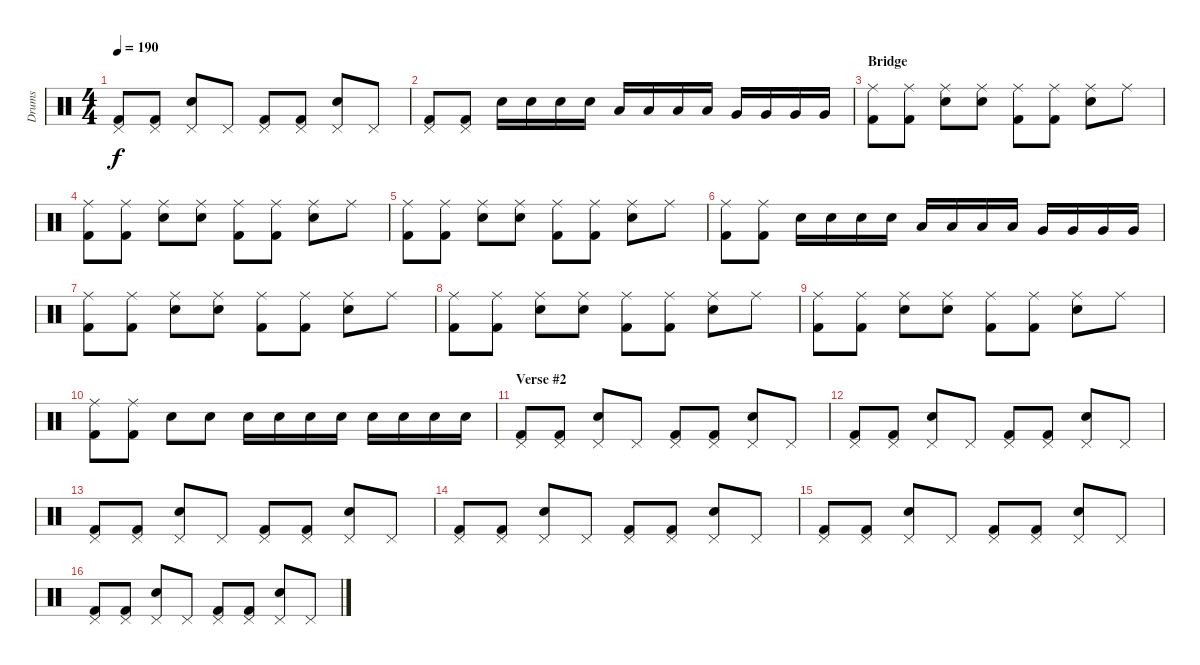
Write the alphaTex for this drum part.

\track ("Drums" "Drums") {instrument percussion}
\staff {score}
\articulation defaults
\ts (4 4)
\tempo 190
\clef neutral
\ks c
("Kick (hit) 2" "Pedal Hi-Hat (hit)").8{dy f} ("Kick (hit) 2" "Pedal Hi-Hat (hit)").8 ("Electric Snare (hit)" "Pedal Hi-Hat (hit)").8 "Pedal Hi-Hat (hit)".8 ("Kick (hit) 2" "Pedal Hi-Hat (hit)").8 ("Kick (hit) 2" "Pedal Hi-Hat (hit)").8 ("Electric Snare (hit)" "Pedal Hi-Hat (hit)").8 "Pedal Hi-Hat (hit)".8 |
("Kick (hit) 2" "Pedal Hi-Hat (hit)").8 ("Kick (hit) 2" "Pedal Hi-Hat (hit)").8 "Electric Snare (hit)".16 "Electric Snare (hit)".16 "Electric Snare (hit)".16 "Electric Snare (hit)".16 "Low Floor Tom (hit)".16 "Low Floor Tom (hit)".16 "Low Floor Tom (hit)".16 "Low Floor Tom (hit)".16 "Very Low Tom (hit)".16 "Very Low Tom (hit)".16 "Very Low Tom (hit)".16 "Very Low Tom (hit)".16 |
\section ("" "Bridge")
("Kick (hit) 2" "Ride (middle)").8 ("Kick (hit) 2" "Ride (middle)").8 ("Electric Snare (hit)" "Ride (middle)").8 ("Electric Snare (hit)" "Ride (middle)").8 ("Kick (hit) 2" "Ride (middle)").8 ("Kick (hit) 2" "Ride (middle)").8 ("Electric Snare (hit)" "Ride (middle)").8 "Ride (middle)".8 |
("Kick (hit) 2" "Ride (middle)").8 ("Kick (hit) 2" "Ride (middle)").8 ("Electric Snare (hit)" "Ride (middle)").8 ("Electric Snare (hit)" "Ride (middle)").8 ("Kick (hit) 2" "Ride (middle)").8 ("Kick (hit) 2" "Ride (middle)").8 ("Electric Snare (hit)" "Ride (middle)").8 "Ride (middle)".8 |
("Kick (hit) 2" "Ride (middle)").8 ("Kick (hit) 2" "Ride (middle)").8 ("Electric Snare (hit)" "Ride (middle)").8 ("Electric Snare (hit)" "Ride (middle)").8 ("Kick (hit) 2" "Ride (middle)").8 ("Kick (hit) 2" "Ride (middle)").8 ("Electric Snare (hit)" "Ride (middle)").8 "Ride (middle)".8 |
("Kick (hit) 2" "Ride (middle)").8 ("Kick (hit) 2" "Ride (middle)").8 "Electric Snare (hit)".16 "Electric Snare (hit)".16 "Electric Snare (hit)".16 "Electric Snare (hit)".16 "Low Floor Tom (hit)".16 "Low Floor Tom (hit)".16 "Low Floor Tom (hit)".16 "Low Floor Tom (hit)".16 "Very Low Tom (hit)".16 "Very Low Tom (hit)".16 "Very Low Tom (hit)".16 "Very Low Tom (hit)".16 |
("Kick (hit) 2" "Ride (middle)").8 ("Kick (hit) 2" "Ride (middle)").8 ("Electric Snare (hit)" "Ride (middle)").8 ("Electric Snare (hit)" "Ride (middle)").8 ("Kick (hit) 2" "Ride (middle)").8 ("Kick (hit) 2" "Ride (middle)").8 ("Electric Snare (hit)" "Ride (middle)").8 "Ride (middle)".8 |
("Kick (hit) 2" "Ride (middle)").8 ("Kick (hit) 2" "Ride (middle)").8 ("Electric Snare (hit)" "Ride (middle)").8 ("Electric Snare (hit)" "Ride (middle)").8 ("Kick (hit) 2" "Ride (middle)").8 ("Kick (hit) 2" "Ride (middle)").8 ("Electric Snare (hit)" "Ride (middle)").8 "Ride (middle)".8 |
("Kick (hit) 2" "Ride (middle)").8 ("Kick (hit) 2" "Ride (middle)").8 ("Electric Snare (hit)" "Ride (middle)").8 ("Electric Snare (hit)" "Ride (middle)").8 ("Kick (hit) 2" "Ride (middle)").8 ("Kick (hit) 2" "Ride (middle)").8 ("Electric Snare (hit)" "Ride (middle)").8 "Ride (middle)".8 |
("Kick (hit) 2" "Ride (middle)").8 ("Kick (hit) 2" "Ride (middle)").8 "Electric Snare (hit)".8 "Electric Snare (hit)".8 "Electric Snare (hit)".16 "Electric Snare (hit)".16 "Electric Snare (hit)".16 "Electric Snare (hit)".16 "Electric Snare (hit)".16 "Electric Snare (hit)".16 "Electric Snare (hit)".16 "Electric Snare (hit)".16 |
\section ("" "Verse #2")
("Kick (hit) 2" "Pedal Hi-Hat (hit)").8 ("Kick (hit) 2" "Pedal Hi-Hat (hit)").8 ("Electric Snare (hit)" "Pedal Hi-Hat (hit)").8 "Pedal Hi-Hat (hit)".8 ("Kick (hit) 2" "Pedal Hi-Hat (hit)").8 ("Kick (hit) 2" "Pedal Hi-Hat (hit)").8 ("Electric Snare (hit)" "Pedal Hi-Hat (hit)").8 "Pedal Hi-Hat (hit)".8 |
("Kick (hit) 2" "Pedal Hi-Hat (hit)").8 ("Kick (hit) 2" "Pedal Hi-Hat (hit)").8 ("Electric Snare (hit)" "Pedal Hi-Hat (hit)").8 "Pedal Hi-Hat (hit)".8 ("Kick (hit) 2" "Pedal Hi-Hat (hit)").8 ("Kick (hit) 2" "Pedal Hi-Hat (hit)").8 ("Electric Snare (hit)" "Pedal Hi-Hat (hit)").8 "Pedal Hi-Hat (hit)".8 |
("Kick (hit) 2" "Pedal Hi-Hat (hit)").8 ("Kick (hit) 2" "Pedal Hi-Hat (hit)").8 ("Electric Snare (hit)" "Pedal Hi-Hat (hit)").8 "Pedal Hi-Hat (hit)".8 ("Kick (hit) 2" "Pedal Hi-Hat (hit)").8 ("Kick (hit) 2" "Pedal Hi-Hat (hit)").8 ("Electric Snare (hit)" "Pedal Hi-Hat (hit)").8 "Pedal Hi-Hat (hit)".8 |
("Kick (hit) 2" "Pedal Hi-Hat (hit)").8 ("Kick (hit) 2" "Pedal Hi-Hat (hit)").8 ("Electric Snare (hit)" "Pedal Hi-Hat (hit)").8 "Pedal Hi-Hat (hit)".8 ("Kick (hit) 2" "Pedal Hi-Hat (hit)").8 ("Kick (hit) 2" "Pedal Hi-Hat (hit)").8 ("Electric Snare (hit)" "Pedal Hi-Hat (hit)").8 "Pedal Hi-Hat (hit)".8 |
("Kick (hit) 2" "Pedal Hi-Hat (hit)").8 ("Kick (hit) 2" "Pedal Hi-Hat (hit)").8 ("Electric Snare (hit)" "Pedal Hi-Hat (hit)").8 "Pedal Hi-Hat (hit)".8 ("Kick (hit) 2" "Pedal Hi-Hat (hit)").8 ("Kick (hit) 2" "Pedal Hi-Hat (hit)").8 ("Electric Snare (hit)" "Pedal Hi-Hat (hit)").8 "Pedal Hi-Hat (hit)".8 |
("Kick (hit) 2" "Pedal Hi-Hat (hit)").8 ("Kick (hit) 2" "Pedal Hi-Hat (hit)").8 ("Electric Snare (hit)" "Pedal Hi-Hat (hit)").8 "Pedal Hi-Hat (hit)".8 ("Kick (hit) 2" "Pedal Hi-Hat (hit)").8 ("Kick (hit) 2" "Pedal Hi-Hat (hit)").8 ("Electric Snare (hit)" "Pedal Hi-Hat (hit)").8 "Pedal Hi-Hat (hit)".8
